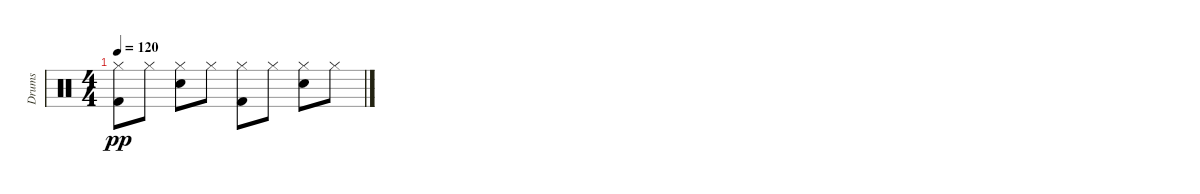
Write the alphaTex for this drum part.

\track ("Drums" "Drums") {instrument percussion}
\staff {score}
\articulation defaults
\ts (4 4)
\tempo 120
\clef neutral
\ks c
("Hi-Hat (closed)" "Kick (hit) 2").8{dy pp} "Hi-Hat (closed)".8 ("Hi-Hat (closed)" "Electric Snare (hit)").8 "Hi-Hat (closed)".8 ("Hi-Hat (closed)" "Kick (hit) 2").8 "Hi-Hat (closed)".8 ("Hi-Hat (closed)" "Electric Snare (hit)").8 "Hi-Hat (closed)".8
